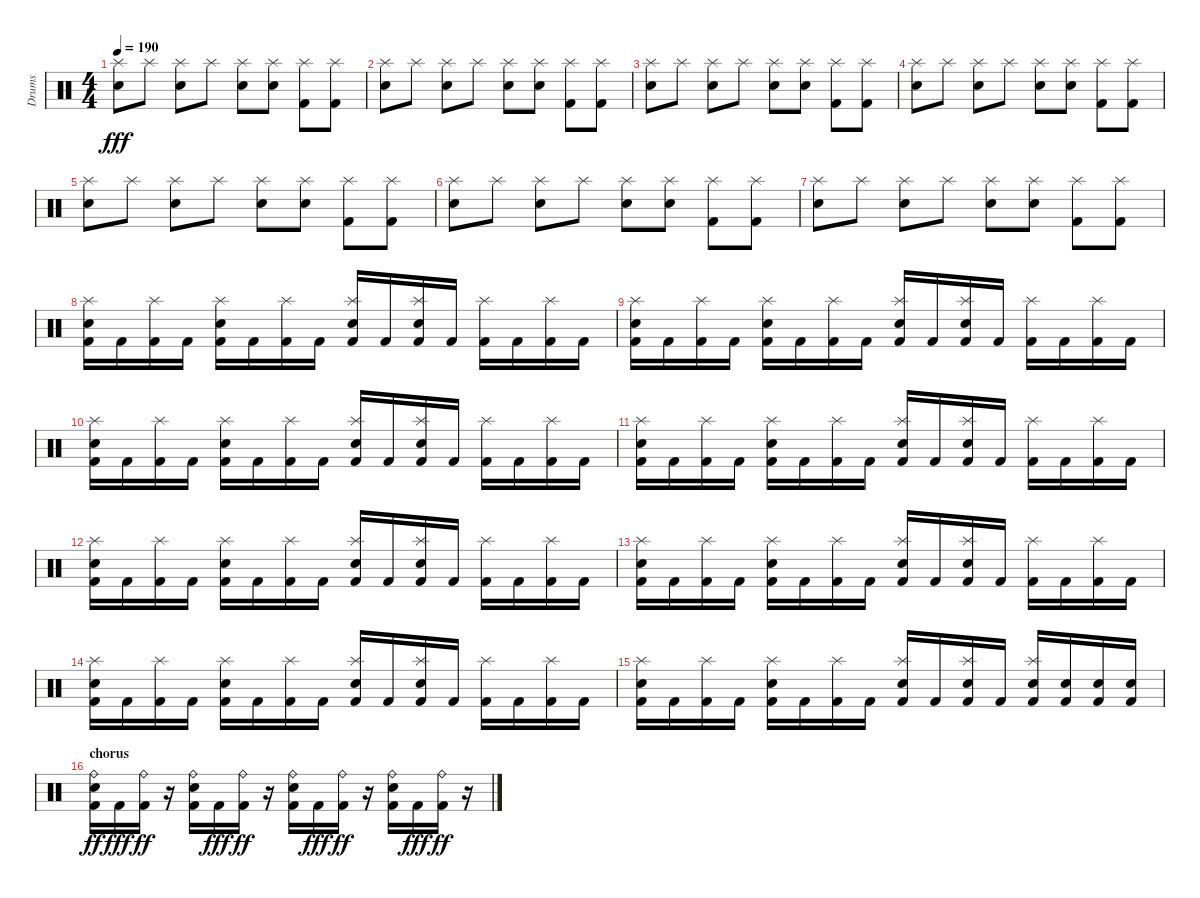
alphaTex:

\track ("Drums" "Drums") {instrument percussion}
\staff {score}
\articulation defaults
\ts (4 4)
\tempo 190
\clef neutral
\ks c
("Electric Snare (hit)" "Splash (hit)").8{dy fff} "Splash (hit)".8 ("Electric Snare (hit)" "Splash (hit)").8 "Splash (hit)".8 ("Electric Snare (hit)" "Splash (hit)").8 ("Electric Snare (hit)" "Splash (hit)").8 ("Kick (hit) 2" "Splash (hit)").8 ("Kick (hit) 2" "Splash (hit)").8 |
("Electric Snare (hit)" "Splash (hit)").8 "Splash (hit)".8 ("Electric Snare (hit)" "Splash (hit)").8 "Splash (hit)".8 ("Electric Snare (hit)" "Splash (hit)").8 ("Electric Snare (hit)" "Splash (hit)").8 ("Kick (hit) 2" "Splash (hit)").8 ("Kick (hit) 2" "Splash (hit)").8 |
("Electric Snare (hit)" "Splash (hit)").8 "Splash (hit)".8 ("Electric Snare (hit)" "Splash (hit)").8 "Splash (hit)".8 ("Electric Snare (hit)" "Splash (hit)").8 ("Electric Snare (hit)" "Splash (hit)").8 ("Kick (hit) 2" "Splash (hit)").8 ("Kick (hit) 2" "Splash (hit)").8 |
("Electric Snare (hit)" "Splash (hit)").8 "Splash (hit)".8 ("Electric Snare (hit)" "Splash (hit)").8 "Splash (hit)".8 ("Electric Snare (hit)" "Splash (hit)").8 ("Electric Snare (hit)" "Splash (hit)").8 ("Kick (hit) 2" "Splash (hit)").8 ("Kick (hit) 2" "Splash (hit)").8 |
("Electric Snare (hit)" "Splash (hit)").8 "Splash (hit)".8 ("Electric Snare (hit)" "Splash (hit)").8 "Splash (hit)".8 ("Electric Snare (hit)" "Splash (hit)").8 ("Electric Snare (hit)" "Splash (hit)").8 ("Kick (hit) 2" "Splash (hit)").8 ("Kick (hit) 2" "Splash (hit)").8 |
("Electric Snare (hit)" "Splash (hit)").8 "Splash (hit)".8 ("Electric Snare (hit)" "Splash (hit)").8 "Splash (hit)".8 ("Electric Snare (hit)" "Splash (hit)").8 ("Electric Snare (hit)" "Splash (hit)").8 ("Kick (hit) 2" "Splash (hit)").8 ("Kick (hit) 2" "Splash (hit)").8 |
("Electric Snare (hit)" "Splash (hit)").8 "Splash (hit)".8 ("Electric Snare (hit)" "Splash (hit)").8 "Splash (hit)".8 ("Electric Snare (hit)" "Splash (hit)").8 ("Electric Snare (hit)" "Splash (hit)").8 ("Kick (hit) 2" "Splash (hit)").8 ("Kick (hit) 2" "Splash (hit)").8 |
("Kick (hit) 2" "Electric Snare (hit)" "Splash (hit)").16 "Kick (hit) 2".16 ("Kick (hit) 2" "Splash (hit)").16 "Kick (hit) 2".16 ("Kick (hit) 2" "Electric Snare (hit)" "Splash (hit)").16 "Kick (hit) 2".16 ("Kick (hit) 2" "Splash (hit)").16 "Kick (hit) 2".16 ("Kick (hit) 2" "Electric Snare (hit)" "Splash (hit)").16 "Kick (hit) 2".16 ("Kick (hit) 2" "Electric Snare (hit)" "Splash (hit)").16 "Kick (hit) 2".16 ("Kick (hit) 2" "Splash (hit)").16 "Kick (hit) 2".16 ("Kick (hit) 2" "Splash (hit)").16 "Kick (hit) 2".16 |
("Kick (hit) 2" "Electric Snare (hit)" "Splash (hit)").16 "Kick (hit) 2".16 ("Kick (hit) 2" "Splash (hit)").16 "Kick (hit) 2".16 ("Kick (hit) 2" "Electric Snare (hit)" "Splash (hit)").16 "Kick (hit) 2".16 ("Kick (hit) 2" "Splash (hit)").16 "Kick (hit) 2".16 ("Kick (hit) 2" "Electric Snare (hit)" "Splash (hit)").16 "Kick (hit) 2".16 ("Kick (hit) 2" "Electric Snare (hit)" "Splash (hit)").16 "Kick (hit) 2".16 ("Kick (hit) 2" "Splash (hit)").16 "Kick (hit) 2".16 ("Kick (hit) 2" "Splash (hit)").16 "Kick (hit) 2".16 |
("Kick (hit) 2" "Electric Snare (hit)" "Splash (hit)").16 "Kick (hit) 2".16 ("Kick (hit) 2" "Splash (hit)").16 "Kick (hit) 2".16 ("Kick (hit) 2" "Electric Snare (hit)" "Splash (hit)").16 "Kick (hit) 2".16 ("Kick (hit) 2" "Splash (hit)").16 "Kick (hit) 2".16 ("Kick (hit) 2" "Electric Snare (hit)" "Splash (hit)").16 "Kick (hit) 2".16 ("Kick (hit) 2" "Electric Snare (hit)" "Splash (hit)").16 "Kick (hit) 2".16 ("Kick (hit) 2" "Splash (hit)").16 "Kick (hit) 2".16 ("Kick (hit) 2" "Splash (hit)").16 "Kick (hit) 2".16 |
("Kick (hit) 2" "Electric Snare (hit)" "Splash (hit)").16 "Kick (hit) 2".16 ("Kick (hit) 2" "Splash (hit)").16 "Kick (hit) 2".16 ("Kick (hit) 2" "Electric Snare (hit)" "Splash (hit)").16 "Kick (hit) 2".16 ("Kick (hit) 2" "Splash (hit)").16 "Kick (hit) 2".16 ("Kick (hit) 2" "Electric Snare (hit)" "Splash (hit)").16 "Kick (hit) 2".16 ("Kick (hit) 2" "Electric Snare (hit)" "Splash (hit)").16 "Kick (hit) 2".16 ("Kick (hit) 2" "Splash (hit)").16 "Kick (hit) 2".16 ("Kick (hit) 2" "Splash (hit)").16 "Kick (hit) 2".16 |
("Kick (hit) 2" "Electric Snare (hit)" "Splash (hit)").16 "Kick (hit) 2".16 ("Kick (hit) 2" "Splash (hit)").16 "Kick (hit) 2".16 ("Kick (hit) 2" "Electric Snare (hit)" "Splash (hit)").16 "Kick (hit) 2".16 ("Kick (hit) 2" "Splash (hit)").16 "Kick (hit) 2".16 ("Kick (hit) 2" "Electric Snare (hit)" "Splash (hit)").16 "Kick (hit) 2".16 ("Kick (hit) 2" "Electric Snare (hit)" "Splash (hit)").16 "Kick (hit) 2".16 ("Kick (hit) 2" "Splash (hit)").16 "Kick (hit) 2".16 ("Kick (hit) 2" "Splash (hit)").16 "Kick (hit) 2".16 |
("Kick (hit) 2" "Electric Snare (hit)" "Splash (hit)").16 "Kick (hit) 2".16 ("Kick (hit) 2" "Splash (hit)").16 "Kick (hit) 2".16 ("Kick (hit) 2" "Electric Snare (hit)" "Splash (hit)").16 "Kick (hit) 2".16 ("Kick (hit) 2" "Splash (hit)").16 "Kick (hit) 2".16 ("Kick (hit) 2" "Electric Snare (hit)" "Splash (hit)").16 "Kick (hit) 2".16 ("Kick (hit) 2" "Electric Snare (hit)" "Splash (hit)").16 "Kick (hit) 2".16 ("Kick (hit) 2" "Splash (hit)").16 "Kick (hit) 2".16 ("Kick (hit) 2" "Splash (hit)").16 "Kick (hit) 2".16 |
("Kick (hit) 2" "Electric Snare (hit)" "Splash (hit)").16 "Kick (hit) 2".16 ("Kick (hit) 2" "Splash (hit)").16 "Kick (hit) 2".16 ("Kick (hit) 2" "Electric Snare (hit)" "Splash (hit)").16 "Kick (hit) 2".16 ("Kick (hit) 2" "Splash (hit)").16 "Kick (hit) 2".16 ("Kick (hit) 2" "Electric Snare (hit)" "Splash (hit)").16 "Kick (hit) 2".16 ("Kick (hit) 2" "Electric Snare (hit)" "Splash (hit)").16 "Kick (hit) 2".16 ("Kick (hit) 2" "Splash (hit)").16 "Kick (hit) 2".16 ("Kick (hit) 2" "Splash (hit)").16 "Kick (hit) 2".16 |
("Kick (hit) 2" "Electric Snare (hit)" "Splash (hit)").16 "Kick (hit) 2".16 ("Kick (hit) 2" "Splash (hit)").16 "Kick (hit) 2".16 ("Kick (hit) 2" "Electric Snare (hit)" "Splash (hit)").16 "Kick (hit) 2".16 ("Kick (hit) 2" "Splash (hit)").16 "Kick (hit) 2".16 ("Kick (hit) 2" "Electric Snare (hit)" "Splash (hit)").16 "Kick (hit) 2".16 ("Kick (hit) 2" "Electric Snare (hit)" "Splash (hit)").16 "Kick (hit) 2".16 ("Kick (hit) 2" "Electric Snare (hit)" "Splash (hit)").16 ("Kick (hit) 2" "Electric Snare (hit)").16 ("Kick (hit) 2" "Electric Snare (hit)").16 ("Kick (hit) 2" "Electric Snare (hit)").16 |
\section ("" "chorus")
("Kick (hit) 2" "Ride (bell)" "Electric Snare (hit)").16{dy ff} "Kick (hit) 2".16{dy fff} ("Kick (hit) 2" "Ride (bell)").16{dy ff} r.16 ("Kick (hit) 2" "Ride (bell)" "Electric Snare (hit)").16 "Kick (hit) 2".16{dy fff} ("Kick (hit) 2" "Ride (bell)").16{dy ff} r.16 ("Kick (hit) 2" "Ride (bell)" "Electric Snare (hit)").16 "Kick (hit) 2".16{dy fff} ("Kick (hit) 2" "Ride (bell)").16{dy ff} r.16 ("Kick (hit) 2" "Ride (bell)" "Electric Snare (hit)").16 "Kick (hit) 2".16{dy fff} ("Kick (hit) 2" "Ride (bell)").16{dy ff} r.16
